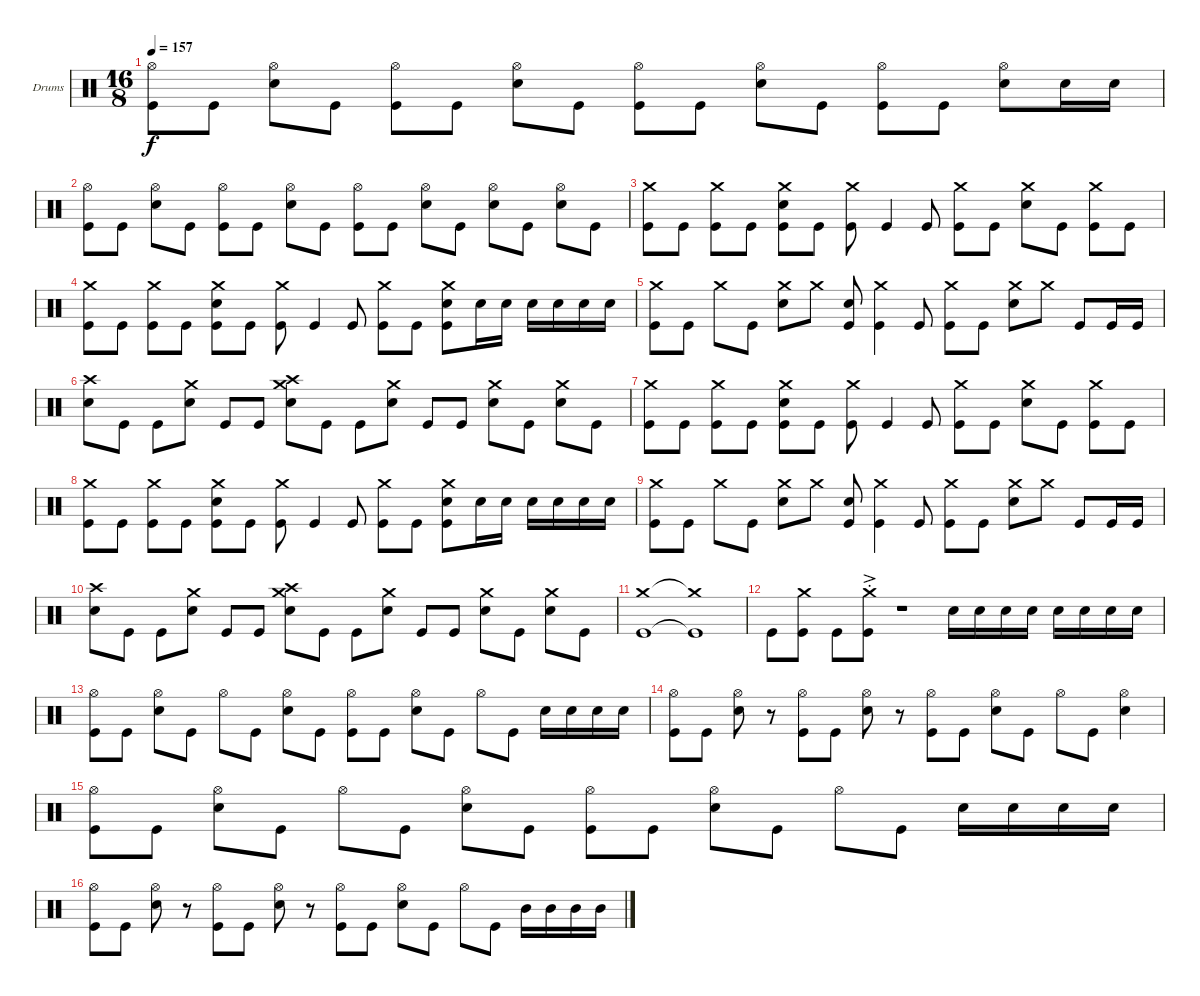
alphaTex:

\bracketExtendMode groupsimilarinstruments
\firstSystemTrackNameOrientation horizontal
\otherSystemsTrackNameOrientation horizontal
\track ("Drumkit" "Drums") {instrument percussion}
\staff {score}
\articulation defaults
\ts (16 8)
\tempo 157
\clef neutral
\ks c
("Hi-Hat (open)" "Kick (hit)").8{dy f} "Kick (hit)".8 ("Snare (hit) 2" "Hi-Hat (open)").8 "Kick (hit)".8 ("Kick (hit)" "Hi-Hat (open)").8 "Kick (hit)".8 ("Snare (hit) 2" "Hi-Hat (open)").8 "Kick (hit)".8 ("Hi-Hat (open)" "Kick (hit)").8 "Kick (hit)".8 ("Snare (hit) 2" "Hi-Hat (open)").8 "Kick (hit)".8 ("Kick (hit)" "Hi-Hat (open)").8 "Kick (hit)".8 ("Snare (hit) 2" "Hi-Hat (open)").8 "Snare (hit) 2".16 "Snare (hit) 2".16 |
("Hi-Hat (open)" "Kick (hit)").8 "Kick (hit)".8 ("Snare (hit) 2" "Hi-Hat (open)").8 "Kick (hit)".8 ("Kick (hit)" "Hi-Hat (open)").8 "Kick (hit)".8 ("Snare (hit) 2" "Hi-Hat (open)").8 "Kick (hit)".8 ("Hi-Hat (open)" "Kick (hit)").8 "Kick (hit)".8 ("Snare (hit) 2" "Hi-Hat (open)").8 "Kick (hit)".8 ("Snare (hit) 2" "Hi-Hat (open)").8 "Kick (hit)".8 ("Snare (hit) 2" "Hi-Hat (open)").8 "Kick (hit)".8 |
("Crash medium (hit)" "Kick (hit)").8 "Kick (hit)".8 ("Kick (hit)" "Crash medium (hit)").8 "Kick (hit)".8 ("Kick (hit)" "Crash medium (hit)" "Snare (hit) 2").8 "Kick (hit)".8 ("Kick (hit)" "Crash medium (hit)").8 "Kick (hit)".4 "Kick (hit)".8 ("Kick (hit)" "Crash medium (hit)").8 "Kick (hit)".8 ("Snare (hit) 2" "Crash medium (hit)").8 "Kick (hit)".8 ("Kick (hit)" "Crash medium (hit)").8 "Kick (hit)".8 |
("Crash medium (hit)" "Kick (hit)").8 "Kick (hit)".8 ("Kick (hit)" "Crash medium (hit)").8 "Kick (hit)".8 ("Kick (hit)" "Crash medium (hit)" "Snare (hit) 2").8 "Kick (hit)".8 ("Kick (hit)" "Crash medium (hit)").8 "Kick (hit)".4 "Kick (hit)".8 ("Kick (hit)" "Crash medium (hit)").8 "Kick (hit)".8 ("Kick (hit)" "Crash medium (hit)" "Snare (hit) 2").8 "Snare (hit) 2".16 "Snare (hit) 2".16 "Snare (hit) 2".16 "Snare (hit) 2".16 "Snare (hit) 2".16 "Snare (hit) 2".16 |
("Crash medium (hit)" "Kick (hit)").8 "Kick (hit)".8 "Crash medium (hit)".8 "Kick (hit)".8 ("Snare (hit) 2" "Crash medium (hit)").8 "Crash medium (hit)".8 ("Snare (hit) 2" "Kick (hit)").8 ("Crash medium (hit)" "Kick (hit)").4 "Kick (hit)".8 ("Kick (hit)" "Crash medium (hit)").8 "Kick (hit)".8 ("Snare (hit) 2" "Crash medium (hit)").8 "Crash medium (hit)".8 "Kick (hit)".8 "Kick (hit)".16 "Kick (hit)".16 |
("Snare (hit) 2" "Crash high (hit)").8 "Kick (hit)".8 "Kick (hit)".8 ("Crash medium (hit)" "Snare (hit) 2").8 "Kick (hit)".8 "Kick (hit)".8 ("Snare (hit) 2" "Crash medium (hit)" "Crash high (hit)").8 "Kick (hit)".8 "Kick (hit)".8 ("Crash medium (hit)" "Snare (hit) 2").8 "Kick (hit)".8 "Kick (hit)".8 ("Crash medium (hit)" "Snare (hit) 2").8 "Kick (hit)".8 ("Crash medium (hit)" "Snare (hit) 2").8 "Kick (hit)".8 |
("Crash medium (hit)" "Kick (hit)").8 "Kick (hit)".8 ("Kick (hit)" "Crash medium (hit)").8 "Kick (hit)".8 ("Kick (hit)" "Crash medium (hit)" "Snare (hit) 2").8 "Kick (hit)".8 ("Kick (hit)" "Crash medium (hit)").8 "Kick (hit)".4 "Kick (hit)".8 ("Kick (hit)" "Crash medium (hit)").8 "Kick (hit)".8 ("Snare (hit) 2" "Crash medium (hit)").8 "Kick (hit)".8 ("Kick (hit)" "Crash medium (hit)").8 "Kick (hit)".8 |
("Crash medium (hit)" "Kick (hit)").8 "Kick (hit)".8 ("Kick (hit)" "Crash medium (hit)").8 "Kick (hit)".8 ("Kick (hit)" "Crash medium (hit)" "Snare (hit) 2").8 "Kick (hit)".8 ("Kick (hit)" "Crash medium (hit)").8 "Kick (hit)".4 "Kick (hit)".8 ("Kick (hit)" "Crash medium (hit)").8 "Kick (hit)".8 ("Kick (hit)" "Crash medium (hit)" "Snare (hit) 2").8 "Snare (hit) 2".16 "Snare (hit) 2".16 "Snare (hit) 2".16 "Snare (hit) 2".16 "Snare (hit) 2".16 "Snare (hit) 2".16 |
("Crash medium (hit)" "Kick (hit)").8 "Kick (hit)".8 "Crash medium (hit)".8 "Kick (hit)".8 ("Snare (hit) 2" "Crash medium (hit)").8 "Crash medium (hit)".8 ("Snare (hit) 2" "Kick (hit)").8 ("Crash medium (hit)" "Kick (hit)").4 "Kick (hit)".8 ("Kick (hit)" "Crash medium (hit)").8 "Kick (hit)".8 ("Snare (hit) 2" "Crash medium (hit)").8 "Crash medium (hit)".8 "Kick (hit)".8 "Kick (hit)".16 "Kick (hit)".16 |
("Snare (hit) 2" "Crash high (hit)").8 "Kick (hit)".8 "Kick (hit)".8 ("Crash medium (hit)" "Snare (hit) 2").8 "Kick (hit)".8 "Kick (hit)".8 ("Snare (hit) 2" "Crash medium (hit)" "Crash high (hit)").8 "Kick (hit)".8 "Kick (hit)".8 ("Crash medium (hit)" "Snare (hit) 2").8 "Kick (hit)".8 "Kick (hit)".8 ("Crash medium (hit)" "Snare (hit) 2").8 "Kick (hit)".8 ("Crash medium (hit)" "Snare (hit) 2").8 "Kick (hit)".8 |
("Crash medium (hit)" "Kick (hit)").1 ("Crash medium (hit)"{t} "Kick (hit)"{t}).1 |
"Kick (hit)".8 ("Kick (hit)" "Crash medium (hit)").8 "Kick (hit)".8 ("Kick (hit)"{ac st} "Crash medium (hit)").8 r.1 "Snare (hit) 2".16 "Snare (hit) 2".16 "Snare (hit) 2".16 "Snare (hit) 2".16 "Snare (hit) 2".16 "Snare (hit) 2".16 "Snare (hit) 2".16 "Snare (hit) 2".16 |
("Hi-Hat (open)" "Kick (hit)").8 "Kick (hit)".8 ("Hi-Hat (open)" "Snare (hit) 2").8 "Kick (hit)".8 "Hi-Hat (open)".8 "Kick (hit)".8 ("Hi-Hat (open)" "Snare (hit) 2").8 "Kick (hit)".8 ("Hi-Hat (open)" "Kick (hit)").8 "Kick (hit)".8 ("Hi-Hat (open)" "Snare (hit) 2").8 "Kick (hit)".8 "Hi-Hat (open)".8 "Kick (hit)".8 "Snare (hit) 2".16 "Snare (hit) 2".16 "Snare (hit) 2".16 "Snare (hit) 2".16 |
("Hi-Hat (open)" "Kick (hit)").8 "Kick (hit)".8 ("Hi-Hat (open)" "Snare (hit) 2").8 r.8 ("Hi-Hat (open)" "Kick (hit)").8 "Kick (hit)".8 ("Hi-Hat (open)" "Snare (hit) 2").8 r.8 ("Hi-Hat (open)" "Kick (hit)").8 "Kick (hit)".8 ("Hi-Hat (open)" "Snare (hit) 2").8 "Kick (hit)".8 "Hi-Hat (open)".8 "Kick (hit)".8 ("Hi-Hat (open)" "Snare (hit) 2").4 |
("Hi-Hat (open)" "Kick (hit)").8 "Kick (hit)".8 ("Hi-Hat (open)" "Snare (hit) 2").8 "Kick (hit)".8 "Hi-Hat (open)".8 "Kick (hit)".8 ("Hi-Hat (open)" "Snare (hit) 2").8 "Kick (hit)".8 ("Hi-Hat (open)" "Kick (hit)").8 "Kick (hit)".8 ("Hi-Hat (open)" "Snare (hit) 2").8 "Kick (hit)".8 "Hi-Hat (open)".8 "Kick (hit)".8 "Snare (hit) 2".16 "Snare (hit) 2".16 "Snare (hit) 2".16 "Snare (hit) 2".16 |
("Hi-Hat (open)" "Kick (hit)").8 "Kick (hit)".8 ("Hi-Hat (open)" "Snare (hit) 2").8 r.8 ("Hi-Hat (open)" "Kick (hit)").8 "Kick (hit)".8 ("Hi-Hat (open)" "Snare (hit) 2").8 r.8 ("Hi-Hat (open)" "Kick (hit)").8 "Kick (hit)".8 ("Hi-Hat (open)" "Snare (hit) 2").8 "Kick (hit)".8 "Hi-Hat (open)".8 "Kick (hit)".8 "Mid Tom (hit)".16 "Mid Tom (hit)".16 "Mid Tom (hit)".16 "Mid Tom (hit)".16
